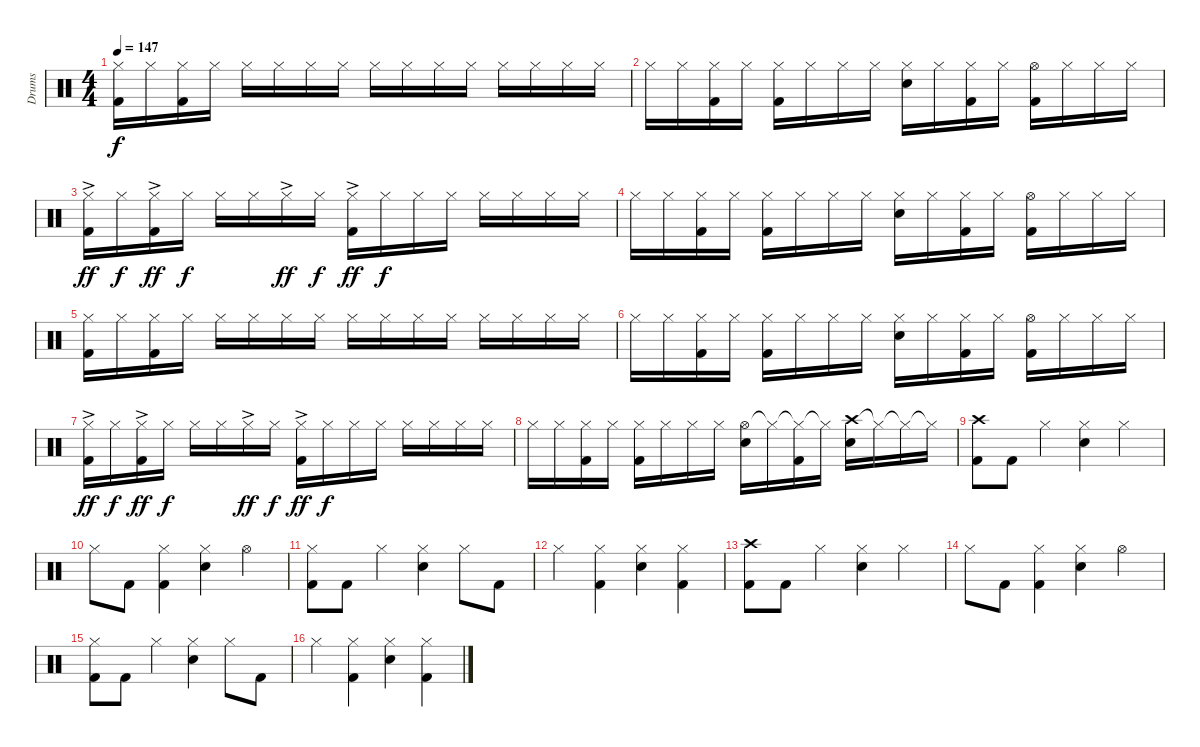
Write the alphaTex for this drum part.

\track ("Drums" "Drums") {instrument percussion}
\staff {score}
\articulation defaults
\ts (4 4)
\tempo 147
\clef neutral
\ks c
("Hi-Hat (closed)" "Kick (hit) 2").16{dy f} "Hi-Hat (closed)".16 ("Hi-Hat (closed)" "Kick (hit) 2").16 "Hi-Hat (closed)".16 "Hi-Hat (closed)".16 "Hi-Hat (closed)".16 "Hi-Hat (closed)".16 "Hi-Hat (closed)".16 "Hi-Hat (closed)".16 "Hi-Hat (closed)".16 "Hi-Hat (closed)".16 "Hi-Hat (closed)".16 "Hi-Hat (closed)".16 "Hi-Hat (closed)".16 "Hi-Hat (closed)".16 "Hi-Hat (closed)".16 |
"Hi-Hat (closed)".16 "Hi-Hat (closed)".16 ("Hi-Hat (closed)" "Kick (hit) 2").16 "Hi-Hat (closed)".16 ("Hi-Hat (closed)" "Kick (hit) 2").16 "Hi-Hat (closed)".16 "Hi-Hat (closed)".16 "Hi-Hat (closed)".16 ("Hi-Hat (closed)" "Electric Snare (hit)").16 "Hi-Hat (closed)".16 ("Hi-Hat (closed)" "Kick (hit) 2").16 "Hi-Hat (closed)".16 ("Hi-Hat (open)" "Kick (hit) 2").16 "Hi-Hat (closed)".16 "Hi-Hat (closed)".16 "Hi-Hat (closed)".16 |
("Hi-Hat (closed)"{ac} "Kick (hit) 2").16{dy ff} "Hi-Hat (closed)".16{dy f} ("Hi-Hat (closed)"{ac} "Kick (hit) 2").16{dy ff} "Hi-Hat (closed)".16{dy f} "Hi-Hat (closed)".16 "Hi-Hat (closed)".16 "Hi-Hat (closed)"{ac}.16{dy ff} "Hi-Hat (closed)".16{dy f} ("Hi-Hat (closed)"{ac} "Kick (hit) 2").16{dy ff} "Hi-Hat (closed)".16{dy f} "Hi-Hat (closed)".16 "Hi-Hat (closed)".16 "Hi-Hat (closed)".16 "Hi-Hat (closed)".16 "Hi-Hat (closed)".16 "Hi-Hat (closed)".16 |
"Hi-Hat (closed)".16 "Hi-Hat (closed)".16 ("Hi-Hat (closed)" "Kick (hit) 2").16 "Hi-Hat (closed)".16 ("Hi-Hat (closed)" "Kick (hit) 2").16 "Hi-Hat (closed)".16 "Hi-Hat (closed)".16 "Hi-Hat (closed)".16 ("Hi-Hat (closed)" "Electric Snare (hit)").16 "Hi-Hat (closed)".16 ("Hi-Hat (closed)" "Kick (hit) 2").16 "Hi-Hat (closed)".16 ("Hi-Hat (open)" "Kick (hit) 2").16 "Hi-Hat (closed)".16 "Hi-Hat (closed)".16 "Hi-Hat (closed)".16 |
("Hi-Hat (closed)" "Kick (hit) 2").16 "Hi-Hat (closed)".16 ("Hi-Hat (closed)" "Kick (hit) 2").16 "Hi-Hat (closed)".16 "Hi-Hat (closed)".16 "Hi-Hat (closed)".16 "Hi-Hat (closed)".16 "Hi-Hat (closed)".16 "Hi-Hat (closed)".16 "Hi-Hat (closed)".16 "Hi-Hat (closed)".16 "Hi-Hat (closed)".16 "Hi-Hat (closed)".16 "Hi-Hat (closed)".16 "Hi-Hat (closed)".16 "Hi-Hat (closed)".16 |
"Hi-Hat (closed)".16 "Hi-Hat (closed)".16 ("Hi-Hat (closed)" "Kick (hit) 2").16 "Hi-Hat (closed)".16 ("Hi-Hat (closed)" "Kick (hit) 2").16 "Hi-Hat (closed)".16 "Hi-Hat (closed)".16 "Hi-Hat (closed)".16 ("Hi-Hat (closed)" "Electric Snare (hit)").16 "Hi-Hat (closed)".16 ("Hi-Hat (closed)" "Kick (hit) 2").16 "Hi-Hat (closed)".16 ("Hi-Hat (open)" "Kick (hit) 2").16 "Hi-Hat (closed)".16 "Hi-Hat (closed)".16 "Hi-Hat (closed)".16 |
("Hi-Hat (closed)"{ac} "Kick (hit) 2").16{dy ff} "Hi-Hat (closed)".16{dy f} ("Hi-Hat (closed)"{ac} "Kick (hit) 2").16{dy ff} "Hi-Hat (closed)".16{dy f} "Hi-Hat (closed)".16 "Hi-Hat (closed)".16 "Hi-Hat (closed)"{ac}.16{dy ff} "Hi-Hat (closed)".16{dy f} ("Hi-Hat (closed)"{ac} "Kick (hit) 2").16{dy ff} "Hi-Hat (closed)".16{dy f} "Hi-Hat (closed)".16 "Hi-Hat (closed)".16 "Hi-Hat (closed)".16 "Hi-Hat (closed)".16 "Hi-Hat (closed)".16 "Hi-Hat (closed)".16 |
"Hi-Hat (closed)".16 "Hi-Hat (closed)".16 ("Hi-Hat (closed)" "Kick (hit) 2").16 "Hi-Hat (closed)".16 ("Hi-Hat (closed)" "Kick (hit) 2").16 "Hi-Hat (closed)".16 "Hi-Hat (closed)".16 "Hi-Hat (closed)".16 ("Hi-Hat (open)" "Electric Snare (hit)").16 "Hi-Hat (closed)"{t}.16 ("Hi-Hat (closed)"{t} "Kick (hit) 2").16 "Hi-Hat (closed)"{t}.16 ("Crash high (hit)" "Electric Snare (hit)").16 "Hi-Hat (closed)"{t}.16 "Hi-Hat (closed)"{t}.16 "Hi-Hat (closed)"{t}.16 |
("Crash high (hit)" "Kick (hit) 2").8 "Kick (hit) 2".8 "Hi-Hat (closed)".4 ("Hi-Hat (closed)" "Electric Snare (hit)").4 "Hi-Hat (closed)".4 |
"Hi-Hat (closed)".8 "Kick (hit) 2".8 ("Hi-Hat (closed)" "Kick (hit) 2").4 ("Hi-Hat (closed)" "Electric Snare (hit)").4 "Hi-Hat (open)".4 |
("Hi-Hat (closed)" "Kick (hit) 2").8 "Kick (hit) 2".8 "Hi-Hat (closed)".4 ("Hi-Hat (closed)" "Electric Snare (hit)").4 "Hi-Hat (closed)".8 "Kick (hit) 2".8 |
"Hi-Hat (closed)".4 ("Hi-Hat (closed)" "Kick (hit) 2").4 ("Hi-Hat (closed)" "Electric Snare (hit)").4 ("Hi-Hat (closed)" "Kick (hit) 2").4 |
("Crash high (hit)" "Kick (hit) 2").8 "Kick (hit) 2".8 "Hi-Hat (closed)".4 ("Hi-Hat (closed)" "Electric Snare (hit)").4 "Hi-Hat (closed)".4 |
"Hi-Hat (closed)".8 "Kick (hit) 2".8 ("Hi-Hat (closed)" "Kick (hit) 2").4 ("Hi-Hat (closed)" "Electric Snare (hit)").4 "Hi-Hat (open)".4 |
("Hi-Hat (closed)" "Kick (hit) 2").8 "Kick (hit) 2".8 "Hi-Hat (closed)".4 ("Hi-Hat (closed)" "Electric Snare (hit)").4 "Hi-Hat (closed)".8 "Kick (hit) 2".8 |
"Hi-Hat (closed)".4 ("Hi-Hat (closed)" "Kick (hit) 2").4 ("Hi-Hat (closed)" "Electric Snare (hit)").4 ("Hi-Hat (closed)" "Kick (hit) 2").4
